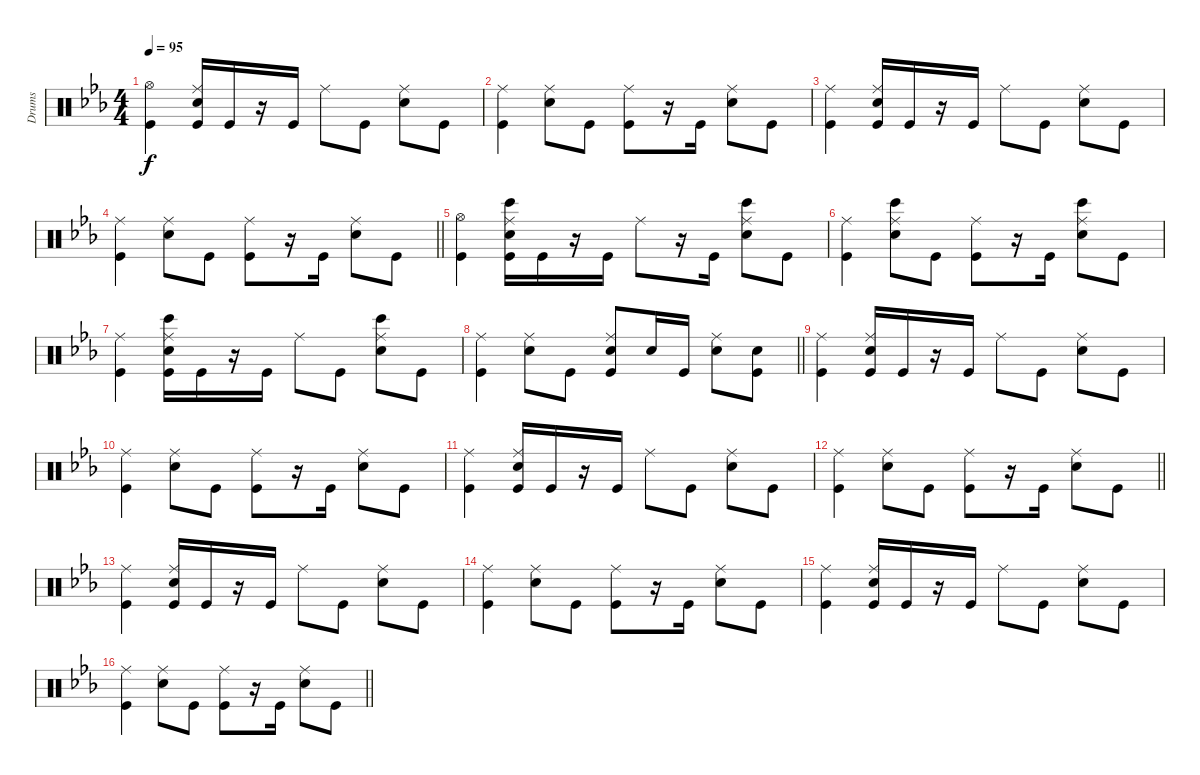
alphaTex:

\track ("Drums" "Drums") {instrument percussion}
\staff {score}
\articulation defaults
\ts (4 4)
\tempo 95
\clef neutral
\ks eb
("Kick (hit)" "Hi-Hat (open)").4{dy f} ("Kick (hit)" "Ride (middle)" "Snare (hit) 2").16 "Kick (hit)".16 r.16 "Kick (hit)".16 "Ride (middle)".8 "Kick (hit)".8 ("Ride (middle)" "Snare (hit) 2").8 "Kick (hit)".8 |
("Kick (hit)" "Ride (middle)").4 ("Ride (middle)" "Snare (hit) 2").8 "Kick (hit)".8 ("Kick (hit)" "Ride (middle)").8 r.16 "Kick (hit)".16 ("Ride (middle)" "Snare (hit) 2").8 "Kick (hit)".8 |
("Kick (hit)" "Ride (middle)").4 ("Kick (hit)" "Ride (middle)" "Snare (hit) 2").16 "Kick (hit)".16 r.16 "Kick (hit)".16 "Ride (middle)".8 "Kick (hit)".8 ("Ride (middle)" "Snare (hit) 2").8 "Kick (hit)".8 |
\barLineRight lightlight
("Kick (hit)" "Ride (middle)").4 ("Ride (middle)" "Snare (hit) 2").8 "Kick (hit)".8 ("Kick (hit)" "Ride (middle)").8 r.16 "Kick (hit)".16 ("Ride (middle)" "Snare (hit) 2").8 "Kick (hit)".8 |
("Kick (hit)" "Hi-Hat (open)").4 ("Kick (hit)" "Ride (middle)" "Snare (hit) 2" "Bongo High (hit)").16 "Kick (hit)".16 r.16 "Kick (hit)".16 "Ride (middle)".8 r.16 "Kick (hit)".16 ("Ride (middle)" "Snare (hit) 2" "Bongo High (hit)").8 "Kick (hit)".8 |
("Kick (hit)" "Ride (middle)").4 ("Ride (middle)" "Snare (hit) 2" "Bongo High (hit)").8 "Kick (hit)".8 ("Kick (hit)" "Ride (middle)").8 r.16 "Kick (hit)".16 ("Ride (middle)" "Snare (hit) 2" "Bongo High (hit)").8 "Kick (hit)".8 |
("Kick (hit)" "Ride (middle)").4 ("Kick (hit)" "Ride (middle)" "Snare (hit) 2" "Bongo High (hit)").16 "Kick (hit)".16 r.16 "Kick (hit)".16 "Ride (middle)".8 "Kick (hit)".8 ("Ride (middle)" "Snare (hit) 2" "Bongo High (hit)").8 "Kick (hit)".8 |
\barLineRight lightlight
("Kick (hit)" "Ride (middle)").4 ("Ride (middle)" "Snare (hit) 2").8 "Kick (hit)".8 ("Kick (hit)" "Ride (middle)" "Snare (hit) 2").8 "Snare (hit) 2".16 "Kick (hit)".16 ("Ride (middle)" "Snare (hit) 2").8 ("Kick (hit)" "Snare (hit) 2").8 |
("Kick (hit)" "Ride (middle)").4 ("Kick (hit)" "Ride (middle)" "Snare (hit) 2").16 "Kick (hit)".16 r.16 "Kick (hit)".16 "Ride (middle)".8 "Kick (hit)".8 ("Ride (middle)" "Snare (hit) 2").8 "Kick (hit)".8 |
("Kick (hit)" "Ride (middle)").4 ("Ride (middle)" "Snare (hit) 2").8 "Kick (hit)".8 ("Kick (hit)" "Ride (middle)").8 r.16 "Kick (hit)".16 ("Ride (middle)" "Snare (hit) 2").8 "Kick (hit)".8 |
("Kick (hit)" "Ride (middle)").4 ("Kick (hit)" "Ride (middle)" "Snare (hit) 2").16 "Kick (hit)".16 r.16 "Kick (hit)".16 "Ride (middle)".8 "Kick (hit)".8 ("Ride (middle)" "Snare (hit) 2").8 "Kick (hit)".8 |
\barLineRight lightlight
("Kick (hit)" "Ride (middle)").4 ("Ride (middle)" "Snare (hit) 2").8 "Kick (hit)".8 ("Kick (hit)" "Ride (middle)").8 r.16 "Kick (hit)".16 ("Ride (middle)" "Snare (hit) 2").8 "Kick (hit)".8 |
("Kick (hit)" "Ride (middle)").4 ("Kick (hit)" "Ride (middle)" "Snare (hit) 2").16 "Kick (hit)".16 r.16 "Kick (hit)".16 "Ride (middle)".8 "Kick (hit)".8 ("Ride (middle)" "Snare (hit) 2").8 "Kick (hit)".8 |
("Kick (hit)" "Ride (middle)").4 ("Ride (middle)" "Snare (hit) 2").8 "Kick (hit)".8 ("Kick (hit)" "Ride (middle)").8 r.16 "Kick (hit)".16 ("Ride (middle)" "Snare (hit) 2").8 "Kick (hit)".8 |
("Kick (hit)" "Ride (middle)").4 ("Kick (hit)" "Ride (middle)" "Snare (hit) 2").16 "Kick (hit)".16 r.16 "Kick (hit)".16 "Ride (middle)".8 "Kick (hit)".8 ("Ride (middle)" "Snare (hit) 2").8 "Kick (hit)".8 |
\barLineRight lightlight
("Kick (hit)" "Ride (middle)").4 ("Ride (middle)" "Snare (hit) 2").8 "Kick (hit)".8 ("Kick (hit)" "Ride (middle)").8 r.16 "Kick (hit)".16 ("Ride (middle)" "Snare (hit) 2").8 "Kick (hit)".8
